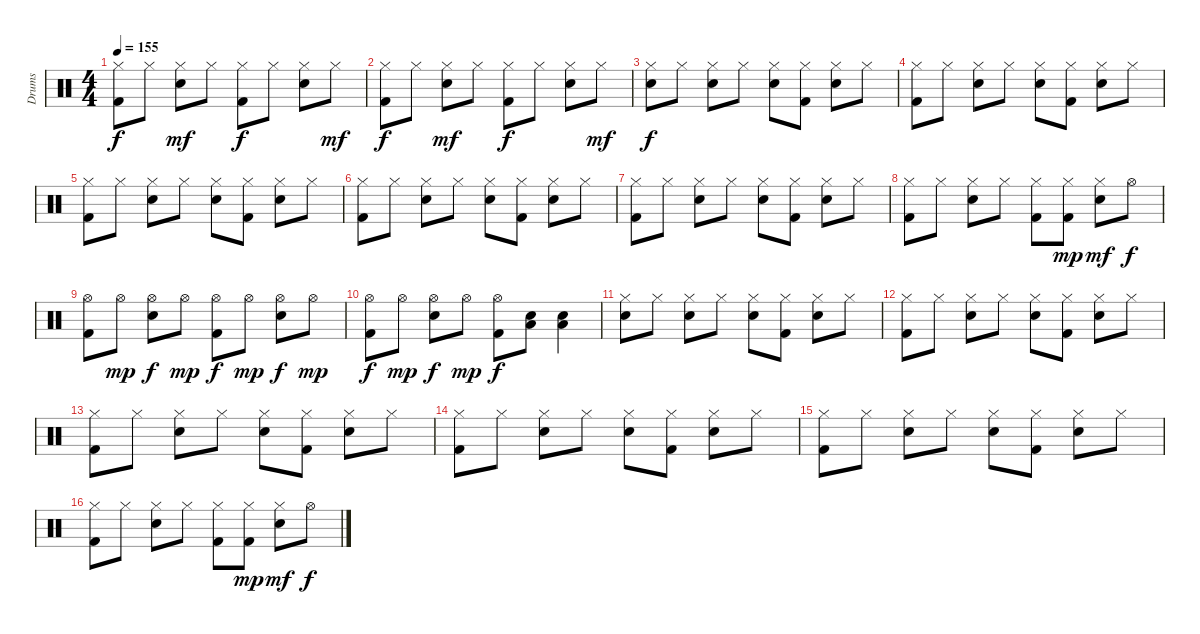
\track ("Drums" "Drums") {instrument percussion}
\staff {score}
\articulation defaults
\ts (4 4)
\tempo 155
\clef neutral
\ks c
("Hi-Hat (closed)" "Kick (hit) 2").8{dy f} "Hi-Hat (closed)".8 ("Hi-Hat (closed)" "Snare (hit) 2").8{dy mf} "Hi-Hat (closed)".8 ("Hi-Hat (closed)" "Kick (hit) 2").8{dy f} "Hi-Hat (closed)".8 ("Hi-Hat (closed)" "Snare (hit) 2").8 "Hi-Hat (closed)".8{dy mf} |
("Hi-Hat (closed)" "Kick (hit) 2").8{dy f} "Hi-Hat (closed)".8 ("Hi-Hat (closed)" "Snare (hit) 2").8{dy mf} "Hi-Hat (closed)".8 ("Hi-Hat (closed)" "Kick (hit) 2").8{dy f} "Hi-Hat (closed)".8 ("Hi-Hat (closed)" "Snare (hit) 2").8 "Hi-Hat (closed)".8{dy mf} |
("Hi-Hat (closed)" "Snare (hit) 2").8{dy f} "Hi-Hat (closed)".8 ("Hi-Hat (closed)" "Snare (hit) 2").8 "Hi-Hat (closed)".8 ("Hi-Hat (closed)" "Snare (hit) 2").8 ("Hi-Hat (closed)" "Kick (hit) 2").8 ("Hi-Hat (closed)" "Snare (hit) 2").8 "Hi-Hat (closed)".8 |
("Hi-Hat (closed)" "Kick (hit) 2").8 "Hi-Hat (closed)".8 ("Hi-Hat (closed)" "Snare (hit) 2").8 "Hi-Hat (closed)".8 ("Hi-Hat (closed)" "Snare (hit) 2").8 ("Hi-Hat (closed)" "Kick (hit) 2").8 ("Hi-Hat (closed)" "Snare (hit) 2").8 "Hi-Hat (closed)".8 |
("Hi-Hat (closed)" "Kick (hit) 2").8 "Hi-Hat (closed)".8 ("Hi-Hat (closed)" "Snare (hit) 2").8 "Hi-Hat (closed)".8 ("Hi-Hat (closed)" "Snare (hit) 2").8 ("Hi-Hat (closed)" "Kick (hit) 2").8 ("Hi-Hat (closed)" "Snare (hit) 2").8 "Hi-Hat (closed)".8 |
("Hi-Hat (closed)" "Kick (hit) 2").8 "Hi-Hat (closed)".8 ("Hi-Hat (closed)" "Snare (hit) 2").8 "Hi-Hat (closed)".8 ("Hi-Hat (closed)" "Snare (hit) 2").8 ("Hi-Hat (closed)" "Kick (hit) 2").8 ("Hi-Hat (closed)" "Snare (hit) 2").8 "Hi-Hat (closed)".8 |
("Hi-Hat (closed)" "Kick (hit) 2").8 "Hi-Hat (closed)".8 ("Hi-Hat (closed)" "Snare (hit) 2").8 "Hi-Hat (closed)".8 ("Hi-Hat (closed)" "Snare (hit) 2").8 ("Hi-Hat (closed)" "Kick (hit) 2").8 ("Hi-Hat (closed)" "Snare (hit) 2").8 "Hi-Hat (closed)".8 |
("Hi-Hat (closed)" "Kick (hit) 2").8 "Hi-Hat (closed)".8 ("Hi-Hat (closed)" "Snare (hit) 2").8 "Hi-Hat (closed)".8 ("Hi-Hat (closed)" "Kick (hit) 2").8 ("Hi-Hat (closed)" "Kick (hit) 2").8{dy mp} ("Hi-Hat (closed)" "Snare (hit) 2").8{dy mf} "Hi-Hat (open)".8{dy f} |
("Hi-Hat (open)" "Kick (hit) 2").8 "Hi-Hat (open)".8{dy mp} ("Hi-Hat (open)" "Snare (hit) 2").8{dy f} "Hi-Hat (open)".8{dy mp} ("Hi-Hat (open)" "Kick (hit) 2").8{dy f} "Hi-Hat (open)".8{dy mp} ("Hi-Hat (open)" "Snare (hit) 2").8{dy f} "Hi-Hat (open)".8{dy mp} |
("Hi-Hat (open)" "Kick (hit) 2").8{dy f} "Hi-Hat (open)".8{dy mp} ("Hi-Hat (open)" "Snare (hit) 2").8{dy f} "Hi-Hat (open)".8{dy mp} ("Hi-Hat (open)" "Kick (hit) 2").8{dy f} ("Low Tom (hit)" "Snare (hit) 2").8 ("Low Tom (hit)" "Snare (hit) 2").4 |
("Hi-Hat (closed)" "Snare (hit) 2").8 "Hi-Hat (closed)".8 ("Hi-Hat (closed)" "Snare (hit) 2").8 "Hi-Hat (closed)".8 ("Hi-Hat (closed)" "Snare (hit) 2").8 ("Hi-Hat (closed)" "Kick (hit) 2").8 ("Hi-Hat (closed)" "Snare (hit) 2").8 "Hi-Hat (closed)".8 |
("Hi-Hat (closed)" "Kick (hit) 2").8 "Hi-Hat (closed)".8 ("Hi-Hat (closed)" "Snare (hit) 2").8 "Hi-Hat (closed)".8 ("Hi-Hat (closed)" "Snare (hit) 2").8 ("Hi-Hat (closed)" "Kick (hit) 2").8 ("Hi-Hat (closed)" "Snare (hit) 2").8 "Hi-Hat (closed)".8 |
("Hi-Hat (closed)" "Kick (hit) 2").8 "Hi-Hat (closed)".8 ("Hi-Hat (closed)" "Snare (hit) 2").8 "Hi-Hat (closed)".8 ("Hi-Hat (closed)" "Snare (hit) 2").8 ("Hi-Hat (closed)" "Kick (hit) 2").8 ("Hi-Hat (closed)" "Snare (hit) 2").8 "Hi-Hat (closed)".8 |
("Hi-Hat (closed)" "Kick (hit) 2").8 "Hi-Hat (closed)".8 ("Hi-Hat (closed)" "Snare (hit) 2").8 "Hi-Hat (closed)".8 ("Hi-Hat (closed)" "Snare (hit) 2").8 ("Hi-Hat (closed)" "Kick (hit) 2").8 ("Hi-Hat (closed)" "Snare (hit) 2").8 "Hi-Hat (closed)".8 |
("Hi-Hat (closed)" "Kick (hit) 2").8 "Hi-Hat (closed)".8 ("Hi-Hat (closed)" "Snare (hit) 2").8 "Hi-Hat (closed)".8 ("Hi-Hat (closed)" "Snare (hit) 2").8 ("Hi-Hat (closed)" "Kick (hit) 2").8 ("Hi-Hat (closed)" "Snare (hit) 2").8 "Hi-Hat (closed)".8 |
("Hi-Hat (closed)" "Kick (hit) 2").8 "Hi-Hat (closed)".8 ("Hi-Hat (closed)" "Snare (hit) 2").8 "Hi-Hat (closed)".8 ("Hi-Hat (closed)" "Kick (hit) 2").8 ("Hi-Hat (closed)" "Kick (hit) 2").8{dy mp} ("Hi-Hat (closed)" "Snare (hit) 2").8{dy mf} "Hi-Hat (open)".8{dy f}
